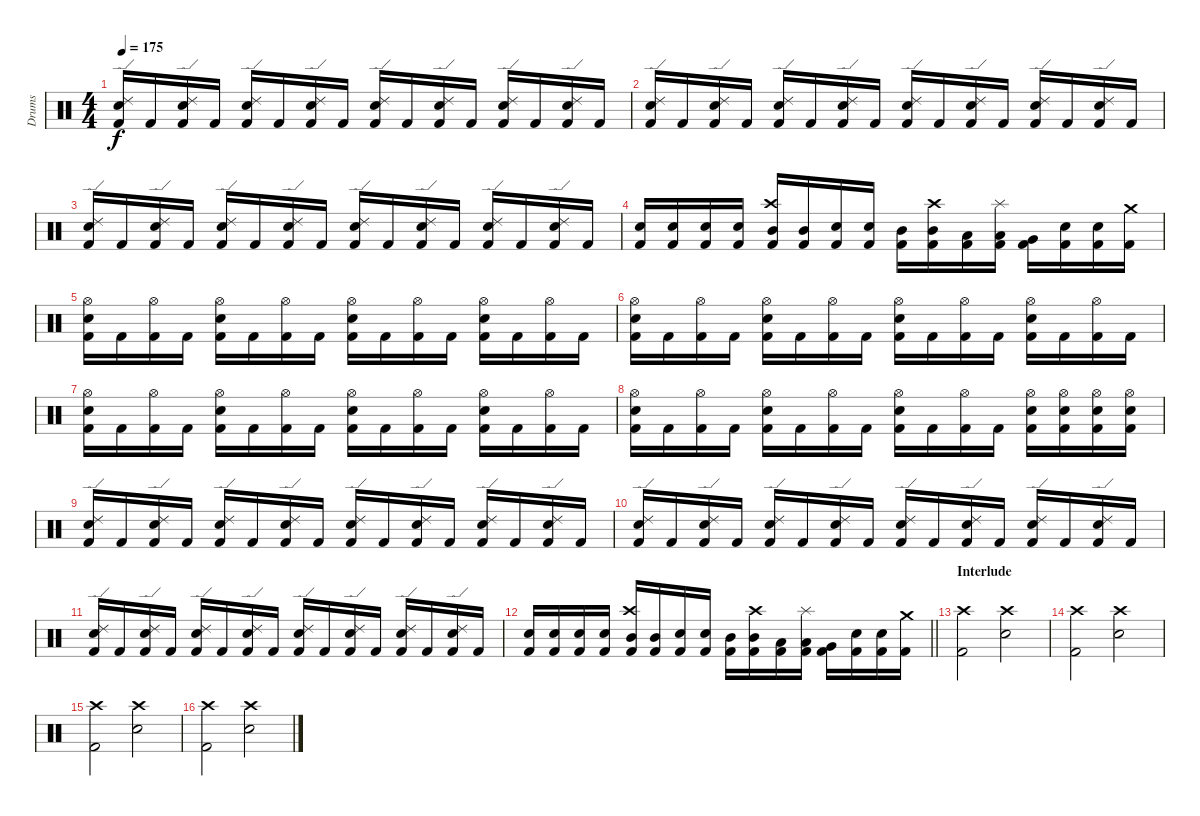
\track ("Drums" "Drums") {instrument percussion}
\staff {score}
\articulation defaults
\ts (4 4)
\tempo 175
\clef neutral
\ks c
("Ride (edge) 2" "Snare (hit) 2" "Kick (hit) 2").16{dy f} "Kick (hit) 2".16 ("Ride (edge) 2" "Snare (hit) 2" "Kick (hit) 2").16 "Kick (hit) 2".16 ("Ride (edge) 2" "Snare (hit) 2" "Kick (hit) 2").16 "Kick (hit) 2".16 ("Ride (edge) 2" "Snare (hit) 2" "Kick (hit) 2").16 "Kick (hit) 2".16 ("Ride (edge) 2" "Snare (hit) 2" "Kick (hit) 2").16 "Kick (hit) 2".16 ("Ride (edge) 2" "Snare (hit) 2" "Kick (hit) 2").16 "Kick (hit) 2".16 ("Ride (edge) 2" "Snare (hit) 2" "Kick (hit) 2").16 "Kick (hit) 2".16 ("Ride (edge) 2" "Snare (hit) 2" "Kick (hit) 2").16 "Kick (hit) 2".16 |
("Ride (edge) 2" "Snare (hit) 2" "Kick (hit) 2").16 "Kick (hit) 2".16 ("Ride (edge) 2" "Snare (hit) 2" "Kick (hit) 2").16 "Kick (hit) 2".16 ("Ride (edge) 2" "Snare (hit) 2" "Kick (hit) 2").16 "Kick (hit) 2".16 ("Ride (edge) 2" "Snare (hit) 2" "Kick (hit) 2").16 "Kick (hit) 2".16 ("Ride (edge) 2" "Snare (hit) 2" "Kick (hit) 2").16 "Kick (hit) 2".16 ("Ride (edge) 2" "Snare (hit) 2" "Kick (hit) 2").16 "Kick (hit) 2".16 ("Ride (edge) 2" "Snare (hit) 2" "Kick (hit) 2").16 "Kick (hit) 2".16 ("Ride (edge) 2" "Snare (hit) 2" "Kick (hit) 2").16 "Kick (hit) 2".16 |
("Ride (edge) 2" "Snare (hit) 2" "Kick (hit) 2").16 "Kick (hit) 2".16 ("Ride (edge) 2" "Snare (hit) 2" "Kick (hit) 2").16 "Kick (hit) 2".16 ("Ride (edge) 2" "Snare (hit) 2" "Kick (hit) 2").16 "Kick (hit) 2".16 ("Ride (edge) 2" "Snare (hit) 2" "Kick (hit) 2").16 "Kick (hit) 2".16 ("Ride (edge) 2" "Snare (hit) 2" "Kick (hit) 2").16 "Kick (hit) 2".16 ("Ride (edge) 2" "Snare (hit) 2" "Kick (hit) 2").16 "Kick (hit) 2".16 ("Ride (edge) 2" "Snare (hit) 2" "Kick (hit) 2").16 "Kick (hit) 2".16 ("Ride (edge) 2" "Snare (hit) 2" "Kick (hit) 2").16 "Kick (hit) 2".16 |
("Snare (hit) 2" "Kick (hit) 2").16 ("Snare (hit) 2" "Kick (hit) 2").16 ("Snare (hit) 2" "Kick (hit) 2").16 ("Snare (hit) 2" "Kick (hit) 2").16 ("Crash high (hit)" "Mid Tom (hit)" "Kick (hit) 2").16 ("Mid Tom (hit)" "Kick (hit) 2").16 ("Snare (hit) 2" "Kick (hit) 2").16 ("Snare (hit) 2" "Kick (hit) 2").16 ("Mid Tom (hit)" "Kick (hit) 2").16 ("Crash high (hit)" "Mid Tom (hit)" "Kick (hit) 2").16 ("Low Tom (hit)" "Kick (hit) 2").16 ("Splash (hit)" "Low Tom (hit)" "Kick (hit) 2").16 ("Very Low Tom (hit)" "Kick (hit) 2").16 ("Snare (hit) 2" "Kick (hit) 2").16 ("Snare (hit) 2" "Kick (hit) 2").16 ("Crash medium (hit)" "Kick (hit) 2").16 |
("Hi-Hat (open)" "Snare (hit) 2" "Kick (hit) 2").16 "Kick (hit) 2".16 ("Hi-Hat (open)" "Kick (hit) 2").16 "Kick (hit) 2".16 ("Hi-Hat (open)" "Snare (hit) 2" "Kick (hit) 2").16 "Kick (hit) 2".16 ("Hi-Hat (open)" "Kick (hit) 2").16 "Kick (hit) 2".16 ("Hi-Hat (open)" "Snare (hit) 2" "Kick (hit) 2").16 "Kick (hit) 2".16 ("Hi-Hat (open)" "Kick (hit) 2").16 "Kick (hit) 2".16 ("Hi-Hat (open)" "Snare (hit) 2" "Kick (hit) 2").16 "Kick (hit) 2".16 ("Hi-Hat (open)" "Kick (hit) 2").16 "Kick (hit) 2".16 |
("Hi-Hat (open)" "Snare (hit) 2" "Kick (hit) 2").16 "Kick (hit) 2".16 ("Hi-Hat (open)" "Kick (hit) 2").16 "Kick (hit) 2".16 ("Hi-Hat (open)" "Snare (hit) 2" "Kick (hit) 2").16 "Kick (hit) 2".16 ("Hi-Hat (open)" "Kick (hit) 2").16 "Kick (hit) 2".16 ("Hi-Hat (open)" "Snare (hit) 2" "Kick (hit) 2").16 "Kick (hit) 2".16 ("Hi-Hat (open)" "Kick (hit) 2").16 "Kick (hit) 2".16 ("Hi-Hat (open)" "Snare (hit) 2" "Kick (hit) 2").16 "Kick (hit) 2".16 ("Hi-Hat (open)" "Kick (hit) 2").16 "Kick (hit) 2".16 |
("Hi-Hat (open)" "Snare (hit) 2" "Kick (hit) 2").16 "Kick (hit) 2".16 ("Hi-Hat (open)" "Kick (hit) 2").16 "Kick (hit) 2".16 ("Hi-Hat (open)" "Snare (hit) 2" "Kick (hit) 2").16 "Kick (hit) 2".16 ("Hi-Hat (open)" "Kick (hit) 2").16 "Kick (hit) 2".16 ("Hi-Hat (open)" "Snare (hit) 2" "Kick (hit) 2").16 "Kick (hit) 2".16 ("Hi-Hat (open)" "Kick (hit) 2").16 "Kick (hit) 2".16 ("Hi-Hat (open)" "Snare (hit) 2" "Kick (hit) 2").16 "Kick (hit) 2".16 ("Hi-Hat (open)" "Kick (hit) 2").16 "Kick (hit) 2".16 |
("Hi-Hat (open)" "Snare (hit) 2" "Kick (hit) 2").16 "Kick (hit) 2".16 ("Hi-Hat (open)" "Kick (hit) 2").16 "Kick (hit) 2".16 ("Hi-Hat (open)" "Snare (hit) 2" "Kick (hit) 2").16 "Kick (hit) 2".16 ("Hi-Hat (open)" "Kick (hit) 2").16 "Kick (hit) 2".16 ("Hi-Hat (open)" "Snare (hit) 2" "Kick (hit) 2").16 "Kick (hit) 2".16 ("Hi-Hat (open)" "Kick (hit) 2").16 "Kick (hit) 2".16 ("Hi-Hat (open)" "Snare (hit) 2" "Kick (hit) 2").16 ("Hi-Hat (open)" "Snare (hit) 2" "Kick (hit) 2").16 ("Hi-Hat (open)" "Snare (hit) 2" "Kick (hit) 2").16 ("Hi-Hat (open)" "Snare (hit) 2" "Kick (hit) 2").16 |
("Ride (edge) 2" "Snare (hit) 2" "Kick (hit) 2").16 "Kick (hit) 2".16 ("Ride (edge) 2" "Snare (hit) 2" "Kick (hit) 2").16 "Kick (hit) 2".16 ("Ride (edge) 2" "Snare (hit) 2" "Kick (hit) 2").16 "Kick (hit) 2".16 ("Ride (edge) 2" "Snare (hit) 2" "Kick (hit) 2").16 "Kick (hit) 2".16 ("Ride (edge) 2" "Snare (hit) 2" "Kick (hit) 2").16 "Kick (hit) 2".16 ("Ride (edge) 2" "Snare (hit) 2" "Kick (hit) 2").16 "Kick (hit) 2".16 ("Ride (edge) 2" "Snare (hit) 2" "Kick (hit) 2").16 "Kick (hit) 2".16 ("Ride (edge) 2" "Snare (hit) 2" "Kick (hit) 2").16 "Kick (hit) 2".16 |
("Ride (edge) 2" "Snare (hit) 2" "Kick (hit) 2").16 "Kick (hit) 2".16 ("Ride (edge) 2" "Snare (hit) 2" "Kick (hit) 2").16 "Kick (hit) 2".16 ("Ride (edge) 2" "Snare (hit) 2" "Kick (hit) 2").16 "Kick (hit) 2".16 ("Ride (edge) 2" "Snare (hit) 2" "Kick (hit) 2").16 "Kick (hit) 2".16 ("Ride (edge) 2" "Snare (hit) 2" "Kick (hit) 2").16 "Kick (hit) 2".16 ("Ride (edge) 2" "Snare (hit) 2" "Kick (hit) 2").16 "Kick (hit) 2".16 ("Ride (edge) 2" "Snare (hit) 2" "Kick (hit) 2").16 "Kick (hit) 2".16 ("Ride (edge) 2" "Snare (hit) 2" "Kick (hit) 2").16 "Kick (hit) 2".16 |
("Ride (edge) 2" "Snare (hit) 2" "Kick (hit) 2").16 "Kick (hit) 2".16 ("Ride (edge) 2" "Snare (hit) 2" "Kick (hit) 2").16 "Kick (hit) 2".16 ("Ride (edge) 2" "Snare (hit) 2" "Kick (hit) 2").16 "Kick (hit) 2".16 ("Ride (edge) 2" "Snare (hit) 2" "Kick (hit) 2").16 "Kick (hit) 2".16 ("Ride (edge) 2" "Snare (hit) 2" "Kick (hit) 2").16 "Kick (hit) 2".16 ("Ride (edge) 2" "Snare (hit) 2" "Kick (hit) 2").16 "Kick (hit) 2".16 ("Ride (edge) 2" "Snare (hit) 2" "Kick (hit) 2").16 "Kick (hit) 2".16 ("Ride (edge) 2" "Snare (hit) 2" "Kick (hit) 2").16 "Kick (hit) 2".16 |
\barLineRight lightlight
("Snare (hit) 2" "Kick (hit) 2").16 ("Snare (hit) 2" "Kick (hit) 2").16 ("Snare (hit) 2" "Kick (hit) 2").16 ("Snare (hit) 2" "Kick (hit) 2").16 ("Crash high (hit)" "Mid Tom (hit)" "Kick (hit) 2").16 ("Mid Tom (hit)" "Kick (hit) 2").16 ("Snare (hit) 2" "Kick (hit) 2").16 ("Snare (hit) 2" "Kick (hit) 2").16 ("Mid Tom (hit)" "Kick (hit) 2").16 ("Crash high (hit)" "Mid Tom (hit)" "Kick (hit) 2").16 ("Low Tom (hit)" "Kick (hit) 2").16 ("Splash (hit)" "Low Tom (hit)" "Kick (hit) 2").16 ("Very Low Tom (hit)" "Kick (hit) 2").16 ("Snare (hit) 2" "Kick (hit) 2").16 ("Snare (hit) 2" "Kick (hit) 2").16 ("Crash medium (hit)" "Kick (hit) 2").16 |
\section ("" "Interlude")
("Crash high (hit)" "Kick (hit) 2").2 ("Crash high (hit)" "Snare (hit) 2").2 |
("Crash high (hit)" "Kick (hit) 2").2 ("Crash high (hit)" "Snare (hit) 2").2 |
("Crash high (hit)" "Kick (hit) 2").2 ("Crash high (hit)" "Snare (hit) 2").2 |
("Crash high (hit)" "Kick (hit) 2").2 ("Crash high (hit)" "Snare (hit) 2").2
